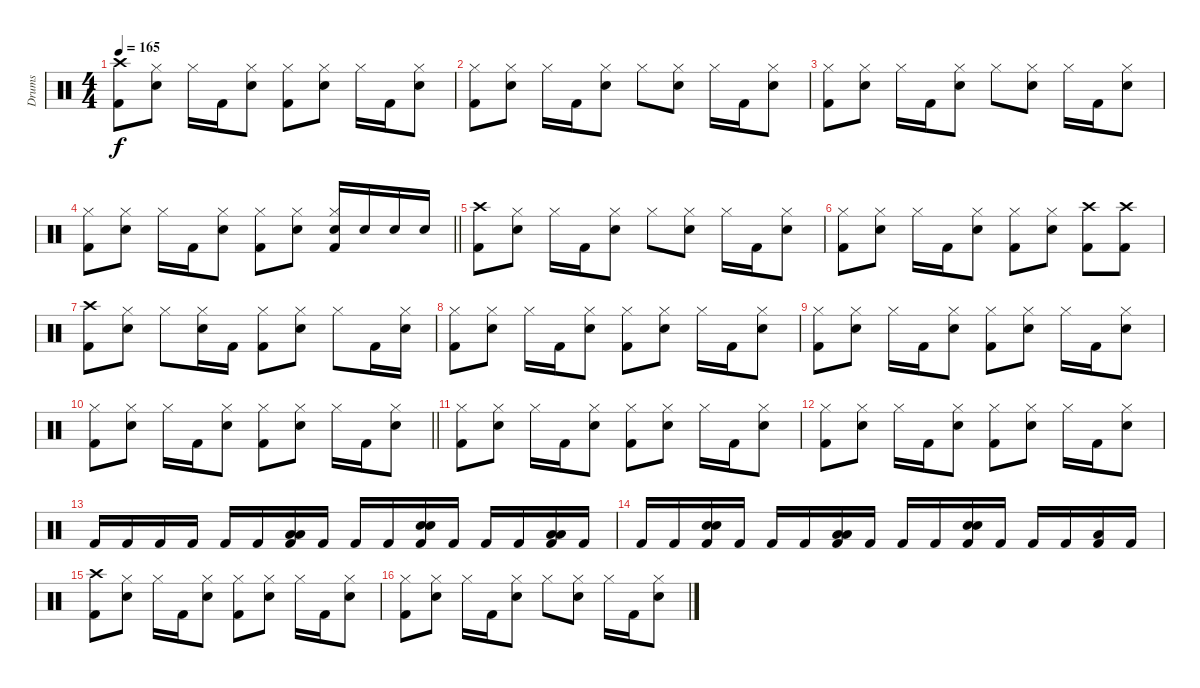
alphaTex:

\track ("Drums" "Drums") {instrument percussion}
\staff {score}
\articulation defaults
\ts (4 4)
\tempo 165
\clef neutral
\ks c
("Crash high (hit)" "Kick (hit) 2").8{dy f} ("Hi-Hat (closed)" "Snare (hit) 2").8 "Hi-Hat (closed)".16 "Kick (hit) 2".16 ("Hi-Hat (closed)" "Snare (hit) 2").8 ("Hi-Hat (closed)" "Kick (hit) 2").8 ("Hi-Hat (closed)" "Snare (hit) 2").8 "Hi-Hat (closed)".16 "Kick (hit) 2".16 ("Hi-Hat (closed)" "Snare (hit) 2").8 |
("Hi-Hat (closed)" "Kick (hit) 2").8 ("Hi-Hat (closed)" "Snare (hit) 2").8 "Hi-Hat (closed)".16 "Kick (hit) 2".16 ("Hi-Hat (closed)" "Snare (hit) 2").8 "Hi-Hat (closed)".8 ("Hi-Hat (closed)" "Snare (hit) 2").8 "Hi-Hat (closed)".16 "Kick (hit) 2".16 ("Hi-Hat (closed)" "Snare (hit) 2").8 |
("Hi-Hat (closed)" "Kick (hit) 2").8 ("Hi-Hat (closed)" "Snare (hit) 2").8 "Hi-Hat (closed)".16 "Kick (hit) 2".16 ("Hi-Hat (closed)" "Snare (hit) 2").8 "Hi-Hat (closed)".8 ("Hi-Hat (closed)" "Snare (hit) 2").8 "Hi-Hat (closed)".16 "Kick (hit) 2".16 ("Hi-Hat (closed)" "Snare (hit) 2").8 |
\barLineRight lightlight
("Hi-Hat (closed)" "Kick (hit) 2").8 ("Hi-Hat (closed)" "Snare (hit) 2").8 "Hi-Hat (closed)".16 "Kick (hit) 2".16 ("Hi-Hat (closed)" "Snare (hit) 2").8 ("Hi-Hat (closed)" "Kick (hit) 2").8 ("Hi-Hat (closed)" "Snare (hit) 2").8 ("Hi-Hat (closed)" "Snare (hit) 2" "Kick (hit) 2").16 "Snare (hit) 2".16 "Snare (hit) 2".16 "Snare (hit) 2".16 |
("Crash high (hit)" "Kick (hit) 2").8 ("Hi-Hat (closed)" "Snare (hit) 2").8 "Hi-Hat (closed)".16 "Kick (hit) 2".16 ("Hi-Hat (closed)" "Snare (hit) 2").8 "Hi-Hat (closed)".8 ("Hi-Hat (closed)" "Snare (hit) 2").8 "Hi-Hat (closed)".16 "Kick (hit) 2".16 ("Hi-Hat (closed)" "Snare (hit) 2").8 |
("Hi-Hat (closed)" "Kick (hit) 2").8 ("Hi-Hat (closed)" "Snare (hit) 2").8 "Hi-Hat (closed)".16 "Kick (hit) 2".16 ("Hi-Hat (closed)" "Snare (hit) 2").8 ("Hi-Hat (closed)" "Kick (hit) 2").8 ("Hi-Hat (closed)" "Snare (hit) 2").8 ("Crash high (hit)" "Kick (hit) 2").8 ("Crash high (hit)" "Kick (hit) 2").8 |
("Crash high (hit)" "Kick (hit) 2").8 ("Hi-Hat (closed)" "Snare (hit) 2").8 "Hi-Hat (closed)".8 ("Hi-Hat (closed)" "Snare (hit) 2").16 "Kick (hit) 2".16 ("Hi-Hat (closed)" "Kick (hit) 2").8 ("Hi-Hat (closed)" "Snare (hit) 2").8 "Hi-Hat (closed)".8 "Kick (hit) 2".16 ("Hi-Hat (closed)" "Snare (hit) 2").16 |
("Hi-Hat (closed)" "Kick (hit) 2").8 ("Hi-Hat (closed)" "Snare (hit) 2").8 "Hi-Hat (closed)".16 "Kick (hit) 2".16 ("Hi-Hat (closed)" "Snare (hit) 2").8 ("Hi-Hat (closed)" "Kick (hit) 2").8 ("Hi-Hat (closed)" "Snare (hit) 2").8 "Hi-Hat (closed)".16 "Kick (hit) 2".16 ("Hi-Hat (closed)" "Snare (hit) 2").8 |
("Hi-Hat (closed)" "Kick (hit) 2").8 ("Hi-Hat (closed)" "Snare (hit) 2").8 "Hi-Hat (closed)".16 "Kick (hit) 2".16 ("Hi-Hat (closed)" "Snare (hit) 2").8 ("Hi-Hat (closed)" "Kick (hit) 2").8 ("Hi-Hat (closed)" "Snare (hit) 2").8 "Hi-Hat (closed)".16 "Kick (hit) 2".16 ("Hi-Hat (closed)" "Snare (hit) 2").8 |
\barLineRight lightlight
("Hi-Hat (closed)" "Kick (hit) 2").8 ("Hi-Hat (closed)" "Snare (hit) 2").8 "Hi-Hat (closed)".16 "Kick (hit) 2".16 ("Hi-Hat (closed)" "Snare (hit) 2").8 ("Hi-Hat (closed)" "Kick (hit) 2").8 ("Hi-Hat (closed)" "Snare (hit) 2").8 "Hi-Hat (closed)".16 "Kick (hit) 2".16 ("Hi-Hat (closed)" "Snare (hit) 2").8 |
("Hi-Hat (closed)" "Kick (hit) 2").8 ("Hi-Hat (closed)" "Snare (hit) 2").8 "Hi-Hat (closed)".16 "Kick (hit) 2".16 ("Hi-Hat (closed)" "Snare (hit) 2").8 ("Hi-Hat (closed)" "Kick (hit) 2").8 ("Hi-Hat (closed)" "Snare (hit) 2").8 "Hi-Hat (closed)".16 "Kick (hit) 2".16 ("Hi-Hat (closed)" "Snare (hit) 2").8 |
("Hi-Hat (closed)" "Kick (hit) 2").8 ("Hi-Hat (closed)" "Snare (hit) 2").8 "Hi-Hat (closed)".16 "Kick (hit) 2".16 ("Hi-Hat (closed)" "Snare (hit) 2").8 ("Hi-Hat (closed)" "Kick (hit) 2").8 ("Hi-Hat (closed)" "Snare (hit) 2").8 "Hi-Hat (closed)".16 "Kick (hit) 2".16 ("Hi-Hat (closed)" "Snare (hit) 2").8 |
"Kick (hit) 2".16 "Kick (hit) 2".16 "Kick (hit) 2".16 "Kick (hit) 2".16 "Kick (hit) 2".16 "Kick (hit) 2".16 ("Low Floor Tom (hit)" "Low Floor Tom (hit)" "Kick (hit) 2").16 "Kick (hit) 2".16 "Kick (hit) 2".16 "Kick (hit) 2".16 ("Snare (hit) 2" "Snare (hit) 2" "Kick (hit) 2").16 "Kick (hit) 2".16 "Kick (hit) 2".16 "Kick (hit) 2".16 ("Low Floor Tom (hit)" "Low Floor Tom (hit)" "Kick (hit) 2").16 "Kick (hit) 2".16 |
"Kick (hit) 2".16 "Kick (hit) 2".16 ("Snare (hit) 2" "Snare (hit) 2" "Kick (hit) 2").16 "Kick (hit) 2".16 "Kick (hit) 2".16 "Kick (hit) 2".16 ("Low Floor Tom (hit)" "Low Floor Tom (hit)" "Kick (hit) 2").16 "Kick (hit) 2".16 "Kick (hit) 2".16 "Kick (hit) 2".16 ("Snare (hit) 2" "Snare (hit) 2" "Kick (hit) 2").16 "Kick (hit) 2".16 "Kick (hit) 2".16 "Kick (hit) 2".16 ("Low Tom (hit)" "Kick (hit) 2").16 "Kick (hit) 2".16 |
("Crash high (hit)" "Kick (hit) 2").8 ("Hi-Hat (closed)" "Snare (hit) 2").8 "Hi-Hat (closed)".16 "Kick (hit) 2".16 ("Hi-Hat (closed)" "Snare (hit) 2").8 ("Hi-Hat (closed)" "Kick (hit) 2").8 ("Hi-Hat (closed)" "Snare (hit) 2").8 "Hi-Hat (closed)".16 "Kick (hit) 2".16 ("Hi-Hat (closed)" "Snare (hit) 2").8 |
("Hi-Hat (closed)" "Kick (hit) 2").8 ("Hi-Hat (closed)" "Snare (hit) 2").8 "Hi-Hat (closed)".16 "Kick (hit) 2".16 ("Hi-Hat (closed)" "Snare (hit) 2").8 "Hi-Hat (closed)".8 ("Hi-Hat (closed)" "Snare (hit) 2").8 "Hi-Hat (closed)".16 "Kick (hit) 2".16 ("Hi-Hat (closed)" "Snare (hit) 2").8
